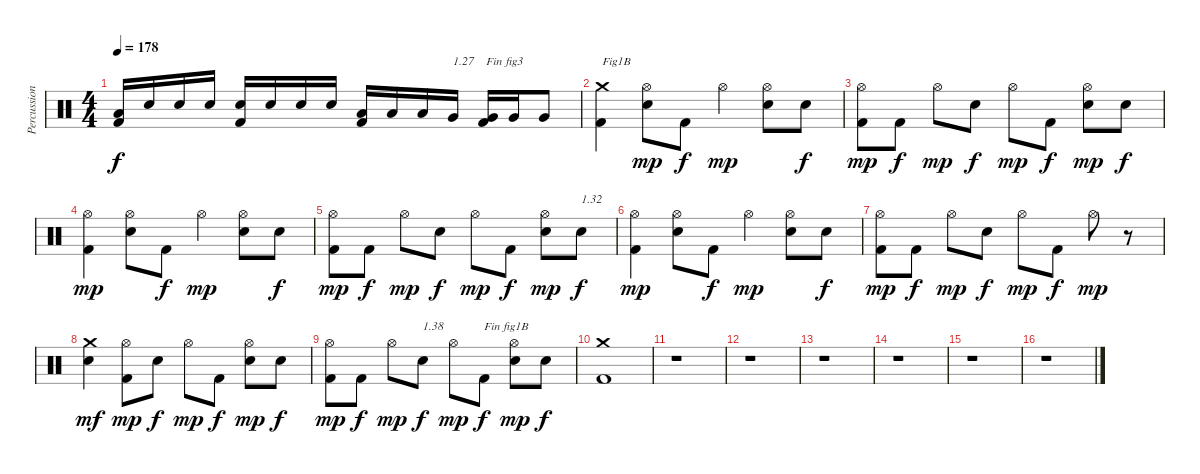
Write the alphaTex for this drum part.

\track ("Percussions" "Percussion") {instrument percussion}
\staff {score}
\articulation defaults
\ts (4 4)
\tempo 178
\clef neutral
\ks c
("Kick (hit) 2" "Low Tom (hit)").16{dy f} "Electric Snare (hit)".16 "Electric Snare (hit)".16 "Electric Snare (hit)".16 ("Kick (hit) 2" "Electric Snare (hit)").16 "Electric Snare (hit)".16 "Electric Snare (hit)".16 "Electric Snare (hit)".16 ("Kick (hit) 2" "Low Tom (hit)").16 "Low Tom (hit)".16 "Low Tom (hit)".16 "Very Low Tom (hit)".16{txt "1.27"} ("Kick (hit) 2" "Very Low Tom (hit)").16{txt " Fin fig3"} "Very Low Tom (hit)".16 "Very Low Tom (hit)".8 |
("Kick (hit) 2" "Crash medium (hit)").4{txt "Fig1B"} ("Electric Snare (hit)" "Hi-Hat (open)").8{dy mp} "Kick (hit) 2".8{dy f} "Hi-Hat (open)".4{dy mp} ("Electric Snare (hit)" "Hi-Hat (open)").8 "Electric Snare (hit)".8{dy f} |
("Kick (hit) 2" "Hi-Hat (open)").8{dy mp} "Kick (hit) 2".8{dy f} "Hi-Hat (open)".8{dy mp} "Electric Snare (hit)".8{dy f} "Hi-Hat (open)".8{dy mp} "Kick (hit) 2".8{dy f} ("Electric Snare (hit)" "Hi-Hat (open)").8{dy mp} "Electric Snare (hit)".8{dy f} |
("Kick (hit) 2" "Hi-Hat (open)").4{dy mp} ("Electric Snare (hit)" "Hi-Hat (open)").8 "Kick (hit) 2".8{dy f} "Hi-Hat (open)".4{dy mp} ("Electric Snare (hit)" "Hi-Hat (open)").8 "Electric Snare (hit)".8{dy f} |
("Kick (hit) 2" "Hi-Hat (open)").8{dy mp} "Kick (hit) 2".8{dy f} "Hi-Hat (open)".8{dy mp} "Electric Snare (hit)".8{dy f} "Hi-Hat (open)".8{dy mp} "Kick (hit) 2".8{dy f} ("Electric Snare (hit)" "Hi-Hat (open)").8{dy mp} "Electric Snare (hit)".8{txt "1.32" dy f} |
("Kick (hit) 2" "Hi-Hat (open)").4{dy mp} ("Electric Snare (hit)" "Hi-Hat (open)").8 "Kick (hit) 2".8{dy f} "Hi-Hat (open)".4{dy mp} ("Electric Snare (hit)" "Hi-Hat (open)").8 "Electric Snare (hit)".8{dy f} |
("Kick (hit) 2" "Hi-Hat (open)").8{dy mp} "Kick (hit) 2".8{dy f} "Hi-Hat (open)".8{dy mp} "Electric Snare (hit)".8{dy f} "Hi-Hat (open)".8{dy mp} "Kick (hit) 2".8{dy f} "Hi-Hat (open)".8{dy mp} r.8 |
("Electric Snare (hit)" "Crash medium (hit)").4{dy mf} ("Kick (hit) 2" "Hi-Hat (open)").8{dy mp} "Electric Snare (hit)".8{dy f} "Hi-Hat (open)".8{dy mp} "Kick (hit) 2".8{dy f} ("Electric Snare (hit)" "Hi-Hat (open)").8{dy mp} "Electric Snare (hit)".8{dy f} |
("Kick (hit) 2" "Hi-Hat (open)").8{dy mp} "Kick (hit) 2".8{dy f} "Hi-Hat (open)".8{dy mp} "Electric Snare (hit)".8{txt "1.38" dy f} "Hi-Hat (open)".8{dy mp} "Kick (hit) 2".8{txt "Fin fig1B" dy f} ("Electric Snare (hit)" "Hi-Hat (open)").8{dy mp} "Electric Snare (hit)".8{dy f} |
("Kick (hit) 2" "Crash medium (hit)").1 |
r.1 |
r.1 |
r.1 |
r.1 |
r.1 |
r.1
